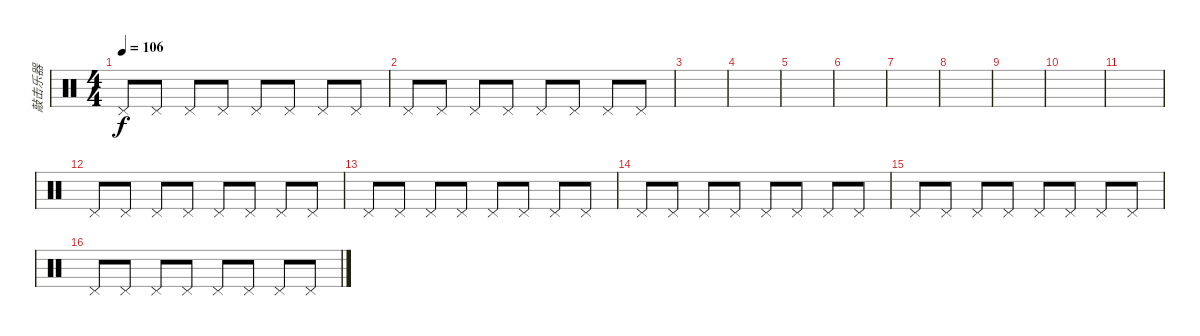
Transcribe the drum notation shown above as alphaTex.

\track ("敲击乐器" "敲击乐器") {instrument percussion}
\staff {score}
\articulation defaults
\ts (4 4)
\tempo 106
\clef neutral
\ks c "Pedal Hi-Hat (hit)".8{dy f} "Pedal Hi-Hat (hit)".8 "Pedal Hi-Hat (hit)".8 "Pedal Hi-Hat (hit)".8 "Pedal Hi-Hat (hit)".8 "Pedal Hi-Hat (hit)".8 "Pedal Hi-Hat (hit)".8 "Pedal Hi-Hat (hit)".8
|
"Pedal Hi-Hat (hit)".8 "Pedal Hi-Hat (hit)".8 "Pedal Hi-Hat (hit)".8 "Pedal Hi-Hat (hit)".8 "Pedal Hi-Hat (hit)".8 "Pedal Hi-Hat (hit)".8 "Pedal Hi-Hat (hit)".8 "Pedal Hi-Hat (hit)".8 |
|
|
|
|
|
|
|
|
|
"Pedal Hi-Hat (hit)".8 "Pedal Hi-Hat (hit)".8 "Pedal Hi-Hat (hit)".8 "Pedal Hi-Hat (hit)".8 "Pedal Hi-Hat (hit)".8 "Pedal Hi-Hat (hit)".8 "Pedal Hi-Hat (hit)".8 "Pedal Hi-Hat (hit)".8 |
"Pedal Hi-Hat (hit)".8 "Pedal Hi-Hat (hit)".8 "Pedal Hi-Hat (hit)".8 "Pedal Hi-Hat (hit)".8 "Pedal Hi-Hat (hit)".8 "Pedal Hi-Hat (hit)".8 "Pedal Hi-Hat (hit)".8 "Pedal Hi-Hat (hit)".8 |
"Pedal Hi-Hat (hit)".8 "Pedal Hi-Hat (hit)".8 "Pedal Hi-Hat (hit)".8 "Pedal Hi-Hat (hit)".8 "Pedal Hi-Hat (hit)".8 "Pedal Hi-Hat (hit)".8 "Pedal Hi-Hat (hit)".8 "Pedal Hi-Hat (hit)".8 |
"Pedal Hi-Hat (hit)".8 "Pedal Hi-Hat (hit)".8 "Pedal Hi-Hat (hit)".8 "Pedal Hi-Hat (hit)".8 "Pedal Hi-Hat (hit)".8 "Pedal Hi-Hat (hit)".8 "Pedal Hi-Hat (hit)".8 "Pedal Hi-Hat (hit)".8 |
"Pedal Hi-Hat (hit)".8 "Pedal Hi-Hat (hit)".8 "Pedal Hi-Hat (hit)".8 "Pedal Hi-Hat (hit)".8 "Pedal Hi-Hat (hit)".8 "Pedal Hi-Hat (hit)".8 "Pedal Hi-Hat (hit)".8 "Pedal Hi-Hat (hit)".8
